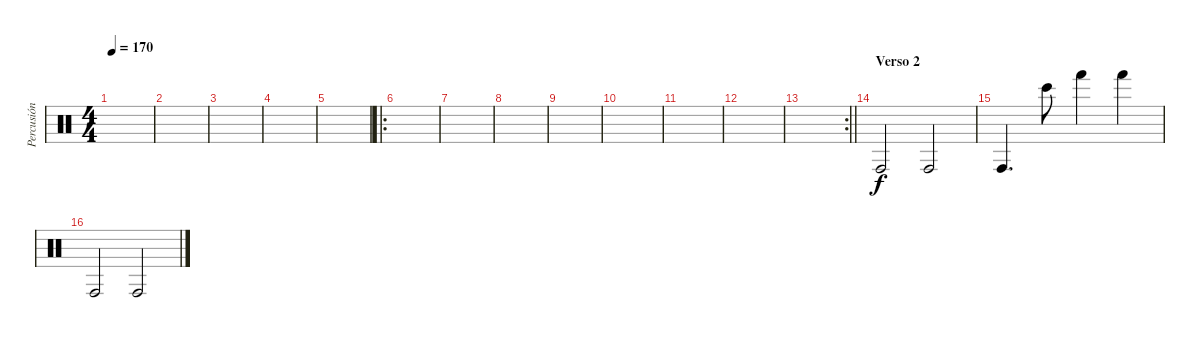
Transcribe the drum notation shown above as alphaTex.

\track ("Percusión" "Percusión") {instrument percussion}
\staff {score}
\articulation defaults
\ts (4 4)
\tempo 170
\clef neutral
\ks c
|
|
|
|
|
\ro
|
|
|
|
|
|
|
\rc 2
\barLineRight lightlight
|
\section ("" "Verso 2")
"Conga high (hit)".2 "Conga high (hit)".2 |
"Conga high (hit)".4{d} "Bongo High (hit)".8 "Hand (hit)".4 "Hand (hit)".4 |
"Conga high (hit)".2 "Conga high (hit)".2
